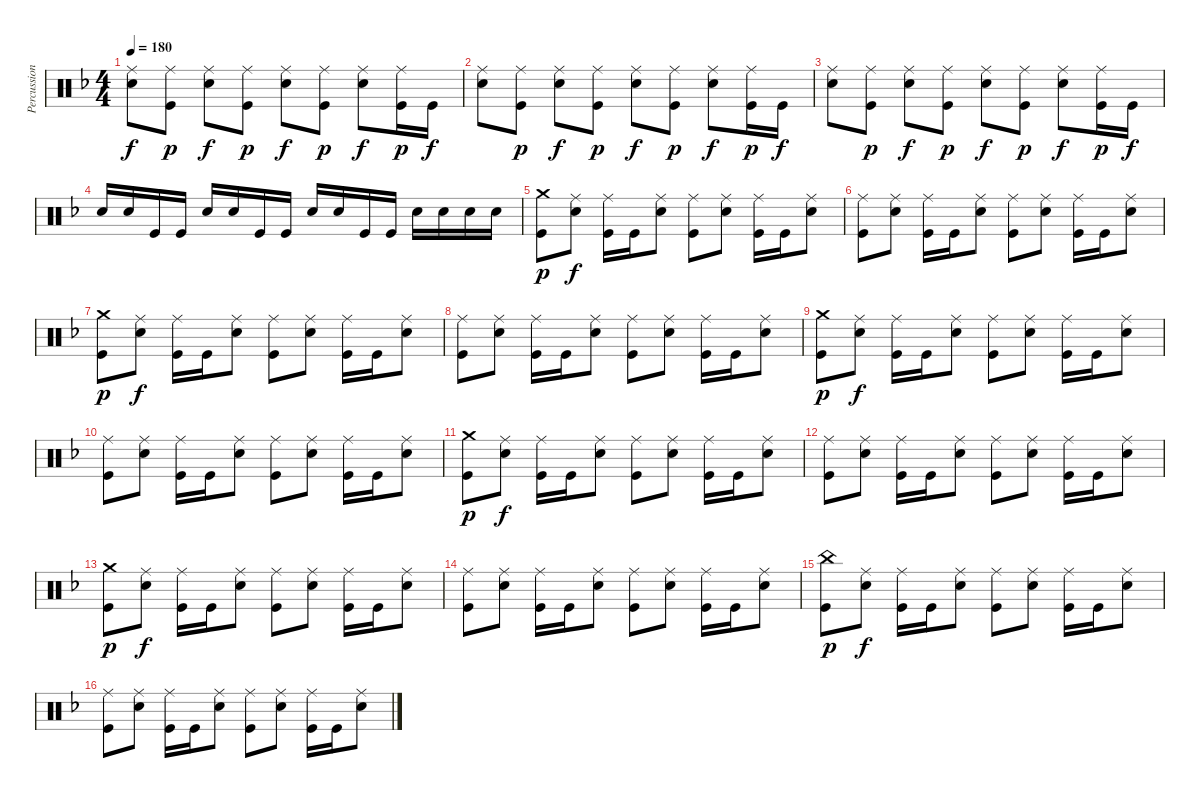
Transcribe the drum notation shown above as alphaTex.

\track ("Percussion" "Percussion") {instrument percussion}
\staff {score}
\articulation defaults
\ts (4 4)
\tempo 180
\clef neutral
\ks f
("Ride (middle)" "Snare (hit) 2").8{dy f} ("Ride (middle)" "Kick (hit)").8{dy p} ("Ride (middle)" "Snare (hit) 2").8{dy f} ("Ride (middle)" "Kick (hit)").8{dy p} ("Ride (middle)" "Snare (hit) 2").8{dy f} ("Ride (middle)" "Kick (hit)").8{dy p} ("Ride (middle)" "Snare (hit) 2").8{dy f} ("Ride (middle)" "Kick (hit)").16{dy p} "Kick (hit)".16{dy f} |
("Ride (middle)" "Snare (hit) 2").8 ("Ride (middle)" "Kick (hit)").8{dy p} ("Ride (middle)" "Snare (hit) 2").8{dy f} ("Ride (middle)" "Kick (hit)").8{dy p} ("Ride (middle)" "Snare (hit) 2").8{dy f} ("Ride (middle)" "Kick (hit)").8{dy p} ("Ride (middle)" "Snare (hit) 2").8{dy f} ("Ride (middle)" "Kick (hit)").16{dy p} "Kick (hit)".16{dy f} |
("Ride (middle)" "Snare (hit) 2").8 ("Ride (middle)" "Kick (hit)").8{dy p} ("Ride (middle)" "Snare (hit) 2").8{dy f} ("Ride (middle)" "Kick (hit)").8{dy p} ("Ride (middle)" "Snare (hit) 2").8{dy f} ("Ride (middle)" "Kick (hit)").8{dy p} ("Ride (middle)" "Snare (hit) 2").8{dy f} ("Ride (middle)" "Kick (hit)").16{dy p} "Kick (hit)".16{dy f} |
"Snare (hit) 2".16 "Snare (hit) 2".16 "Kick (hit)".16 "Kick (hit)".16 "Snare (hit) 2".16 "Snare (hit) 2".16 "Kick (hit)".16 "Kick (hit)".16 "Snare (hit) 2".16 "Snare (hit) 2".16 "Kick (hit)".16 "Kick (hit)".16 "Snare (hit) 2".16 "Snare (hit) 2".16 "Snare (hit) 2".16 "Snare (hit) 2".16 |
("Crash medium (hit)" "Kick (hit)").8{dy p} ("Ride (middle)" "Snare (hit) 2").8{dy f} ("Ride (middle)" "Kick (hit)").16 "Kick (hit)".16 ("Ride (middle)" "Snare (hit) 2").8 ("Ride (middle)" "Kick (hit)").8 ("Ride (middle)" "Snare (hit) 2").8 ("Ride (middle)" "Kick (hit)").16 "Kick (hit)".16 ("Ride (middle)" "Snare (hit) 2").8 |
("Ride (middle)" "Kick (hit)").8 ("Ride (middle)" "Snare (hit) 2").8 ("Ride (middle)" "Kick (hit)").16 "Kick (hit)".16 ("Ride (middle)" "Snare (hit) 2").8 ("Ride (middle)" "Kick (hit)").8 ("Ride (middle)" "Snare (hit) 2").8 ("Ride (middle)" "Kick (hit)").16 "Kick (hit)".16 ("Ride (middle)" "Snare (hit) 2").8 |
("Crash medium (hit)" "Kick (hit)").8{dy p} ("Ride (middle)" "Snare (hit) 2").8{dy f} ("Ride (middle)" "Kick (hit)").16 "Kick (hit)".16 ("Ride (middle)" "Snare (hit) 2").8 ("Ride (middle)" "Kick (hit)").8 ("Ride (middle)" "Snare (hit) 2").8 ("Ride (middle)" "Kick (hit)").16 "Kick (hit)".16 ("Ride (middle)" "Snare (hit) 2").8 |
("Ride (middle)" "Kick (hit)").8 ("Ride (middle)" "Snare (hit) 2").8 ("Ride (middle)" "Kick (hit)").16 "Kick (hit)".16 ("Ride (middle)" "Snare (hit) 2").8 ("Ride (middle)" "Kick (hit)").8 ("Ride (middle)" "Snare (hit) 2").8 ("Ride (middle)" "Kick (hit)").16 "Kick (hit)".16 ("Ride (middle)" "Snare (hit) 2").8 |
("Crash medium (hit)" "Kick (hit)").8{dy p} ("Ride (middle)" "Snare (hit) 2").8{dy f} ("Ride (middle)" "Kick (hit)").16 "Kick (hit)".16 ("Ride (middle)" "Snare (hit) 2").8 ("Ride (middle)" "Kick (hit)").8 ("Ride (middle)" "Snare (hit) 2").8 ("Ride (middle)" "Kick (hit)").16 "Kick (hit)".16 ("Ride (middle)" "Snare (hit) 2").8 |
("Ride (middle)" "Kick (hit)").8 ("Ride (middle)" "Snare (hit) 2").8 ("Ride (middle)" "Kick (hit)").16 "Kick (hit)".16 ("Ride (middle)" "Snare (hit) 2").8 ("Ride (middle)" "Kick (hit)").8 ("Ride (middle)" "Snare (hit) 2").8 ("Ride (middle)" "Kick (hit)").16 "Kick (hit)".16 ("Ride (middle)" "Snare (hit) 2").8 |
("Crash medium (hit)" "Kick (hit)").8{dy p} ("Ride (middle)" "Snare (hit) 2").8{dy f} ("Ride (middle)" "Kick (hit)").16 "Kick (hit)".16 ("Ride (middle)" "Snare (hit) 2").8 ("Ride (middle)" "Kick (hit)").8 ("Ride (middle)" "Snare (hit) 2").8 ("Ride (middle)" "Kick (hit)").16 "Kick (hit)".16 ("Ride (middle)" "Snare (hit) 2").8 |
("Ride (middle)" "Kick (hit)").8 ("Ride (middle)" "Snare (hit) 2").8 ("Ride (middle)" "Kick (hit)").16 "Kick (hit)".16 ("Ride (middle)" "Snare (hit) 2").8 ("Ride (middle)" "Kick (hit)").8 ("Ride (middle)" "Snare (hit) 2").8 ("Ride (middle)" "Kick (hit)").16 "Kick (hit)".16 ("Ride (middle)" "Snare (hit) 2").8 |
("Crash medium (hit)" "Kick (hit)").8{dy p} ("Ride (middle)" "Snare (hit) 2").8{dy f} ("Ride (middle)" "Kick (hit)").16 "Kick (hit)".16 ("Ride (middle)" "Snare (hit) 2").8 ("Ride (middle)" "Kick (hit)").8 ("Ride (middle)" "Snare (hit) 2").8 ("Ride (middle)" "Kick (hit)").16 "Kick (hit)".16 ("Ride (middle)" "Snare (hit) 2").8 |
("Ride (middle)" "Kick (hit)").8 ("Ride (middle)" "Snare (hit) 2").8 ("Ride (middle)" "Kick (hit)").16 "Kick (hit)".16 ("Ride (middle)" "Snare (hit) 2").8 ("Ride (middle)" "Kick (hit)").8 ("Ride (middle)" "Snare (hit) 2").8 ("Ride (middle)" "Kick (hit)").16 "Kick (hit)".16 ("Ride (middle)" "Snare (hit) 2").8 |
("China (hit)" "Kick (hit)").8{dy p} ("Ride (middle)" "Snare (hit) 2").8{dy f} ("Ride (middle)" "Kick (hit)").16 "Kick (hit)".16 ("Ride (middle)" "Snare (hit) 2").8 ("Ride (middle)" "Kick (hit)").8 ("Ride (middle)" "Snare (hit) 2").8 ("Ride (middle)" "Kick (hit)").16 "Kick (hit)".16 ("Ride (middle)" "Snare (hit) 2").8 |
("Ride (middle)" "Kick (hit)").8 ("Ride (middle)" "Snare (hit) 2").8 ("Ride (middle)" "Kick (hit)").16 "Kick (hit)".16 ("Ride (middle)" "Snare (hit) 2").8 ("Ride (middle)" "Kick (hit)").8 ("Ride (middle)" "Snare (hit) 2").8 ("Ride (middle)" "Kick (hit)").16 "Kick (hit)".16 ("Ride (middle)" "Snare (hit) 2").8
